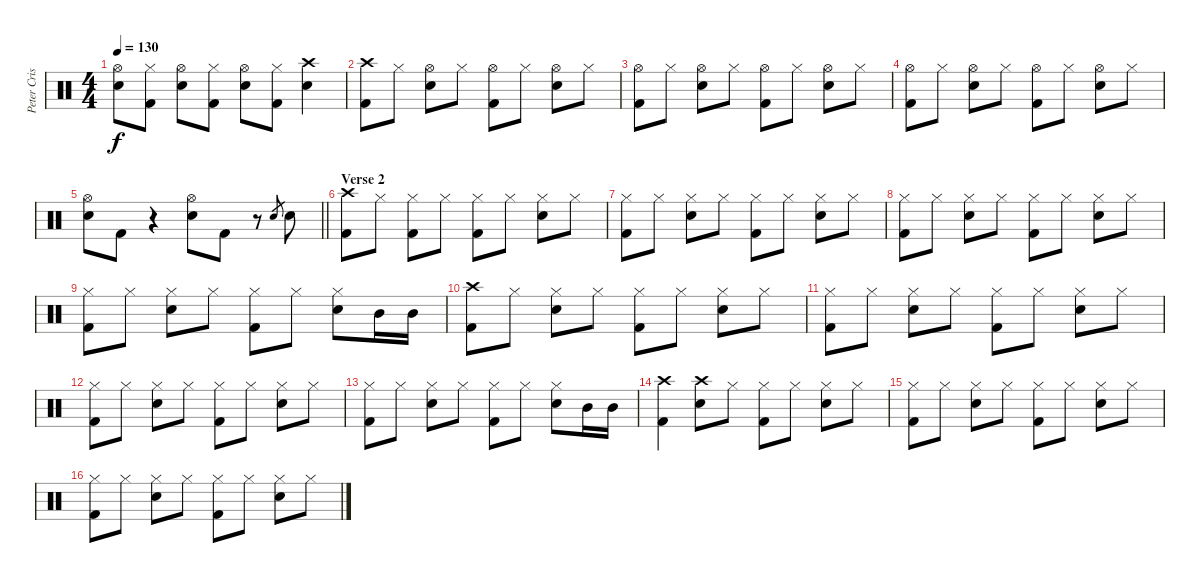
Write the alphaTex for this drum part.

\track ("Peter Criss" "Peter Cris") {instrument percussion}
\staff {score}
\articulation defaults
\ts (4 4)
\tempo 130
\clef neutral
\ks c
("Hi-Hat (open)" "Snare (hit) 2").8{dy f} ("Hi-Hat (closed)" "Kick (hit) 2").8 ("Hi-Hat (open)" "Snare (hit) 2").8 ("Hi-Hat (closed)" "Kick (hit) 2").8 ("Hi-Hat (open)" "Snare (hit) 2").8 ("Hi-Hat (closed)" "Kick (hit) 2").8 ("Crash high (hit)" "Snare (hit) 2").4 |
("Crash high (hit)" "Kick (hit) 2").8 "Hi-Hat (closed)".8 ("Hi-Hat (open)" "Snare (hit) 2").8 "Hi-Hat (closed)".8 ("Hi-Hat (open)" "Kick (hit) 2").8 "Hi-Hat (closed)".8 ("Hi-Hat (open)" "Snare (hit) 2").8 "Hi-Hat (closed)".8 |
("Hi-Hat (open)" "Kick (hit) 2").8 "Hi-Hat (closed)".8 ("Hi-Hat (open)" "Snare (hit) 2").8 "Hi-Hat (closed)".8 ("Hi-Hat (open)" "Kick (hit) 2").8 "Hi-Hat (closed)".8 ("Hi-Hat (open)" "Snare (hit) 2").8 "Hi-Hat (closed)".8 |
("Hi-Hat (open)" "Kick (hit) 2").8 "Hi-Hat (closed)".8 ("Hi-Hat (open)" "Snare (hit) 2").8 "Hi-Hat (closed)".8 ("Hi-Hat (open)" "Kick (hit) 2").8 "Hi-Hat (closed)".8 ("Hi-Hat (open)" "Snare (hit) 2").8 "Hi-Hat (closed)".8 |
\barLineRight lightlight
("Hi-Hat (open)" "Snare (hit) 2").8 "Kick (hit) 2".8 r.4 ("Hi-Hat (open)" "Snare (hit) 2").8 "Kick (hit) 2".8 r.8 "Snare (hit) 2".8{gr} "Snare (hit) 2".8 |
\section ("" "Verse 2")
("Crash high (hit)" "Kick (hit) 2").8 "Hi-Hat (closed)".8 ("Hi-Hat (closed)" "Kick (hit) 2").8 "Hi-Hat (closed)".8 ("Hi-Hat (closed)" "Kick (hit) 2").8 "Hi-Hat (closed)".8 ("Hi-Hat (closed)" "Snare (hit) 2").8 "Hi-Hat (closed)".8 |
("Hi-Hat (closed)" "Kick (hit) 2").8 "Hi-Hat (closed)".8 ("Hi-Hat (closed)" "Snare (hit) 2").8 "Hi-Hat (closed)".8 ("Hi-Hat (closed)" "Kick (hit) 2").8 "Hi-Hat (closed)".8 ("Hi-Hat (closed)" "Snare (hit) 2").8 "Hi-Hat (closed)".8 |
("Hi-Hat (closed)" "Kick (hit) 2").8 "Hi-Hat (closed)".8 ("Hi-Hat (closed)" "Snare (hit) 2").8 "Hi-Hat (closed)".8 ("Hi-Hat (closed)" "Kick (hit) 2").8 "Hi-Hat (closed)".8 ("Hi-Hat (closed)" "Snare (hit) 2").8 "Hi-Hat (closed)".8 |
("Hi-Hat (closed)" "Kick (hit) 2").8 "Hi-Hat (closed)".8 ("Hi-Hat (closed)" "Snare (hit) 2").8 "Hi-Hat (closed)".8 ("Hi-Hat (closed)" "Kick (hit) 2").8 "Hi-Hat (closed)".8 ("Hi-Hat (closed)" "Snare (hit) 2").8 "Mid Tom (hit)".16 "Mid Tom (hit)".16 |
("Crash high (hit)" "Kick (hit) 2").8 "Hi-Hat (closed)".8 ("Hi-Hat (closed)" "Snare (hit) 2").8 "Hi-Hat (closed)".8 ("Hi-Hat (closed)" "Kick (hit) 2").8 "Hi-Hat (closed)".8 ("Hi-Hat (closed)" "Snare (hit) 2").8 "Hi-Hat (closed)".8 |
("Hi-Hat (closed)" "Kick (hit) 2").8 "Hi-Hat (closed)".8 ("Hi-Hat (closed)" "Snare (hit) 2").8 "Hi-Hat (closed)".8 ("Hi-Hat (closed)" "Kick (hit) 2").8 "Hi-Hat (closed)".8 ("Hi-Hat (closed)" "Snare (hit) 2").8 "Hi-Hat (closed)".8 |
("Hi-Hat (closed)" "Kick (hit) 2").8 "Hi-Hat (closed)".8 ("Hi-Hat (closed)" "Snare (hit) 2").8 "Hi-Hat (closed)".8 ("Hi-Hat (closed)" "Kick (hit) 2").8 "Hi-Hat (closed)".8 ("Hi-Hat (closed)" "Snare (hit) 2").8 "Hi-Hat (closed)".8 |
("Hi-Hat (closed)" "Kick (hit) 2").8 "Hi-Hat (closed)".8 ("Hi-Hat (closed)" "Snare (hit) 2").8 "Hi-Hat (closed)".8 ("Hi-Hat (closed)" "Kick (hit) 2").8 "Hi-Hat (closed)".8 ("Hi-Hat (closed)" "Snare (hit) 2").8 "Mid Tom (hit)".16 "Mid Tom (hit)".16 |
("Crash high (hit)" "Kick (hit) 2").4 ("Crash high (hit)" "Snare (hit) 2").8 "Hi-Hat (closed)".8 ("Hi-Hat (closed)" "Kick (hit) 2").8 "Hi-Hat (closed)".8 ("Hi-Hat (closed)" "Snare (hit) 2").8 "Hi-Hat (closed)".8 |
("Hi-Hat (closed)" "Kick (hit) 2").8 "Hi-Hat (closed)".8 ("Hi-Hat (closed)" "Snare (hit) 2").8 "Hi-Hat (closed)".8 ("Hi-Hat (closed)" "Kick (hit) 2").8 "Hi-Hat (closed)".8 ("Hi-Hat (closed)" "Snare (hit) 2").8 "Hi-Hat (closed)".8 |
("Hi-Hat (closed)" "Kick (hit) 2").8 "Hi-Hat (closed)".8 ("Hi-Hat (closed)" "Snare (hit) 2").8 "Hi-Hat (closed)".8 ("Hi-Hat (closed)" "Kick (hit) 2").8 "Hi-Hat (closed)".8 ("Hi-Hat (closed)" "Snare (hit) 2").8 "Hi-Hat (closed)".8
